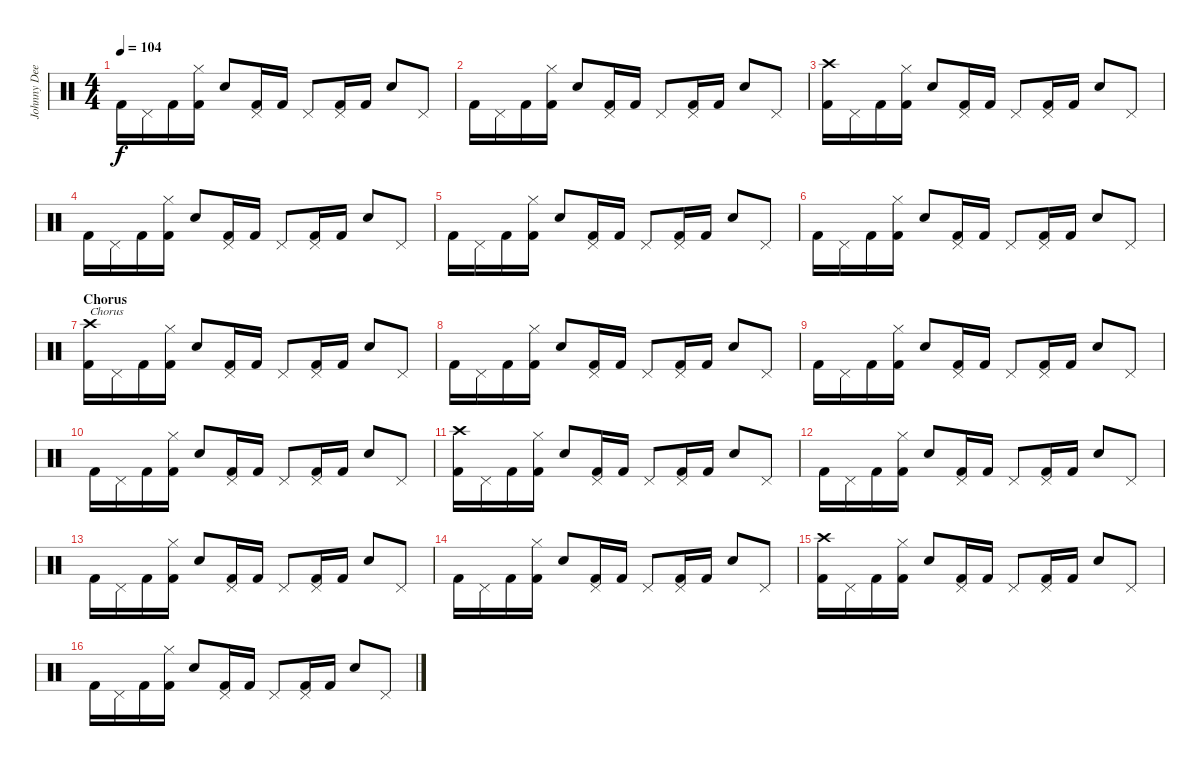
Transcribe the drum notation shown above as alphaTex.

\track ("Johnny Dee" "Johnny Dee") {instrument percussion}
\staff {score}
\articulation defaults
\ts (4 4)
\tempo 104
\clef neutral
\ks c "Kick (hit) 2".16{dy f} "Pedal Hi-Hat (hit)".16 "Kick (hit) 2".16
("Hi-Hat (closed)" "Kick (hit) 2").16 "Snare (hit) 2".8 ("Pedal Hi-Hat (hit)" "Kick (hit) 2").16 "Kick (hit) 2".16 "Pedal Hi-Hat (hit)".8 ("Pedal Hi-Hat (hit)" "Kick (hit) 2").16 "Kick (hit) 2".16 "Snare (hit) 2".8 "Pedal Hi-Hat (hit)".8 |
"Kick (hit) 2".16 "Pedal Hi-Hat (hit)".16 "Kick (hit) 2".16 ("Hi-Hat (closed)" "Kick (hit) 2").16 "Snare (hit) 2".8 ("Pedal Hi-Hat (hit)" "Kick (hit) 2").16 "Kick (hit) 2".16 "Pedal Hi-Hat (hit)".8 ("Pedal Hi-Hat (hit)" "Kick (hit) 2").16 "Kick (hit) 2".16 "Snare (hit) 2".8 "Pedal Hi-Hat (hit)".8 |
("Crash high (hit)" "Kick (hit) 2").16 "Pedal Hi-Hat (hit)".16 "Kick (hit) 2".16 ("Hi-Hat (closed)" "Kick (hit) 2").16 "Snare (hit) 2".8 ("Pedal Hi-Hat (hit)" "Kick (hit) 2").16 "Kick (hit) 2".16 "Pedal Hi-Hat (hit)".8 ("Pedal Hi-Hat (hit)" "Kick (hit) 2").16 "Kick (hit) 2".16 "Snare (hit) 2".8 "Pedal Hi-Hat (hit)".8 |
"Kick (hit) 2".16 "Pedal Hi-Hat (hit)".16 "Kick (hit) 2".16 ("Hi-Hat (closed)" "Kick (hit) 2").16 "Snare (hit) 2".8 ("Pedal Hi-Hat (hit)" "Kick (hit) 2").16 "Kick (hit) 2".16 "Pedal Hi-Hat (hit)".8 ("Pedal Hi-Hat (hit)" "Kick (hit) 2").16 "Kick (hit) 2".16 "Snare (hit) 2".8 "Pedal Hi-Hat (hit)".8 |
"Kick (hit) 2".16 "Pedal Hi-Hat (hit)".16 "Kick (hit) 2".16 ("Hi-Hat (closed)" "Kick (hit) 2").16 "Snare (hit) 2".8 ("Pedal Hi-Hat (hit)" "Kick (hit) 2").16 "Kick (hit) 2".16 "Pedal Hi-Hat (hit)".8 ("Pedal Hi-Hat (hit)" "Kick (hit) 2").16 "Kick (hit) 2".16 "Snare (hit) 2".8 "Pedal Hi-Hat (hit)".8 |
"Kick (hit) 2".16 "Pedal Hi-Hat (hit)".16 "Kick (hit) 2".16 ("Hi-Hat (closed)" "Kick (hit) 2").16 "Snare (hit) 2".8 ("Pedal Hi-Hat (hit)" "Kick (hit) 2").16 "Kick (hit) 2".16 "Pedal Hi-Hat (hit)".8 ("Pedal Hi-Hat (hit)" "Kick (hit) 2").16 "Kick (hit) 2".16 "Snare (hit) 2".8 "Pedal Hi-Hat (hit)".8 |
\section ("" "Chorus")
("Crash high (hit)" "Kick (hit) 2").16{txt "Chorus"} "Pedal Hi-Hat (hit)".16 "Kick (hit) 2".16 ("Hi-Hat (closed)" "Kick (hit) 2").16 "Snare (hit) 2".8 ("Pedal Hi-Hat (hit)" "Kick (hit) 2").16 "Kick (hit) 2".16 "Pedal Hi-Hat (hit)".8 ("Pedal Hi-Hat (hit)" "Kick (hit) 2").16 "Kick (hit) 2".16 "Snare (hit) 2".8 "Pedal Hi-Hat (hit)".8 |
"Kick (hit) 2".16 "Pedal Hi-Hat (hit)".16 "Kick (hit) 2".16 ("Hi-Hat (closed)" "Kick (hit) 2").16 "Snare (hit) 2".8 ("Pedal Hi-Hat (hit)" "Kick (hit) 2").16 "Kick (hit) 2".16 "Pedal Hi-Hat (hit)".8 ("Pedal Hi-Hat (hit)" "Kick (hit) 2").16 "Kick (hit) 2".16 "Snare (hit) 2".8 "Pedal Hi-Hat (hit)".8 |
"Kick (hit) 2".16 "Pedal Hi-Hat (hit)".16 "Kick (hit) 2".16 ("Hi-Hat (closed)" "Kick (hit) 2").16 "Snare (hit) 2".8 ("Pedal Hi-Hat (hit)" "Kick (hit) 2").16 "Kick (hit) 2".16 "Pedal Hi-Hat (hit)".8 ("Pedal Hi-Hat (hit)" "Kick (hit) 2").16 "Kick (hit) 2".16 "Snare (hit) 2".8 "Pedal Hi-Hat (hit)".8 |
"Kick (hit) 2".16 "Pedal Hi-Hat (hit)".16 "Kick (hit) 2".16 ("Hi-Hat (closed)" "Kick (hit) 2").16 "Snare (hit) 2".8 ("Pedal Hi-Hat (hit)" "Kick (hit) 2").16 "Kick (hit) 2".16 "Pedal Hi-Hat (hit)".8 ("Pedal Hi-Hat (hit)" "Kick (hit) 2").16 "Kick (hit) 2".16 "Snare (hit) 2".8 "Pedal Hi-Hat (hit)".8 |
("Crash high (hit)" "Kick (hit) 2").16 "Pedal Hi-Hat (hit)".16 "Kick (hit) 2".16 ("Hi-Hat (closed)" "Kick (hit) 2").16 "Snare (hit) 2".8 ("Pedal Hi-Hat (hit)" "Kick (hit) 2").16 "Kick (hit) 2".16 "Pedal Hi-Hat (hit)".8 ("Pedal Hi-Hat (hit)" "Kick (hit) 2").16 "Kick (hit) 2".16 "Snare (hit) 2".8 "Pedal Hi-Hat (hit)".8 |
"Kick (hit) 2".16 "Pedal Hi-Hat (hit)".16 "Kick (hit) 2".16 ("Hi-Hat (closed)" "Kick (hit) 2").16 "Snare (hit) 2".8 ("Pedal Hi-Hat (hit)" "Kick (hit) 2").16 "Kick (hit) 2".16 "Pedal Hi-Hat (hit)".8 ("Pedal Hi-Hat (hit)" "Kick (hit) 2").16 "Kick (hit) 2".16 "Snare (hit) 2".8 "Pedal Hi-Hat (hit)".8 |
"Kick (hit) 2".16 "Pedal Hi-Hat (hit)".16 "Kick (hit) 2".16 ("Hi-Hat (closed)" "Kick (hit) 2").16 "Snare (hit) 2".8 ("Pedal Hi-Hat (hit)" "Kick (hit) 2").16 "Kick (hit) 2".16 "Pedal Hi-Hat (hit)".8 ("Pedal Hi-Hat (hit)" "Kick (hit) 2").16 "Kick (hit) 2".16 "Snare (hit) 2".8 "Pedal Hi-Hat (hit)".8 |
"Kick (hit) 2".16 "Pedal Hi-Hat (hit)".16 "Kick (hit) 2".16 ("Hi-Hat (closed)" "Kick (hit) 2").16 "Snare (hit) 2".8 ("Pedal Hi-Hat (hit)" "Kick (hit) 2").16 "Kick (hit) 2".16 "Pedal Hi-Hat (hit)".8 ("Pedal Hi-Hat (hit)" "Kick (hit) 2").16 "Kick (hit) 2".16 "Snare (hit) 2".8 "Pedal Hi-Hat (hit)".8 |
("Crash high (hit)" "Kick (hit) 2").16 "Pedal Hi-Hat (hit)".16 "Kick (hit) 2".16 ("Hi-Hat (closed)" "Kick (hit) 2").16 "Snare (hit) 2".8 ("Pedal Hi-Hat (hit)" "Kick (hit) 2").16 "Kick (hit) 2".16 "Pedal Hi-Hat (hit)".8 ("Pedal Hi-Hat (hit)" "Kick (hit) 2").16 "Kick (hit) 2".16 "Snare (hit) 2".8 "Pedal Hi-Hat (hit)".8 |
"Kick (hit) 2".16 "Pedal Hi-Hat (hit)".16 "Kick (hit) 2".16 ("Hi-Hat (closed)" "Kick (hit) 2").16 "Snare (hit) 2".8 ("Pedal Hi-Hat (hit)" "Kick (hit) 2").16 "Kick (hit) 2".16 "Pedal Hi-Hat (hit)".8 ("Pedal Hi-Hat (hit)" "Kick (hit) 2").16 "Kick (hit) 2".16 "Snare (hit) 2".8 "Pedal Hi-Hat (hit)".8
